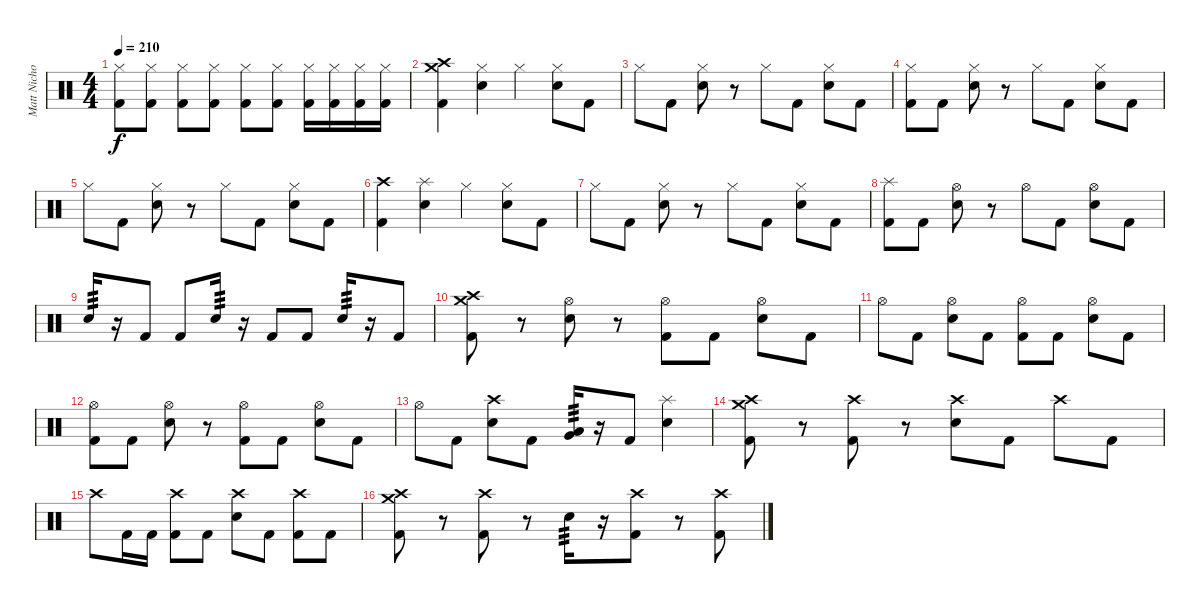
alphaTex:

\track ("Matt Nichols" "Matt Nicho") {instrument percussion}
\staff {score}
\articulation defaults
\ts (4 4)
\tempo 210
\clef neutral
\ks c
("Hi-Hat (closed)" "Kick (hit) 2").8{dy f} ("Hi-Hat (closed)" "Kick (hit) 2").8 ("Hi-Hat (closed)" "Kick (hit) 2").8 ("Hi-Hat (closed)" "Kick (hit) 2").8 ("Hi-Hat (closed)" "Kick (hit) 2").8 ("Hi-Hat (closed)" "Kick (hit) 2").8 ("Hi-Hat (closed)" "Kick (hit) 2").16 ("Hi-Hat (closed)" "Kick (hit) 2").16 ("Hi-Hat (closed)" "Kick (hit) 2").16 ("Hi-Hat (closed)" "Kick (hit) 2").16 |
("Crash high (hit)" "Crash medium (hit)" "Kick (hit) 2").4 ("Hi-Hat (closed)" "Snare (hit) 2").4 "Hi-Hat (closed)".4 ("Hi-Hat (closed)" "Snare (hit) 2").8 "Kick (hit) 2".8 |
"Hi-Hat (closed)".8 "Kick (hit) 2".8 ("Hi-Hat (closed)" "Snare (hit) 2").8 r.8 "Hi-Hat (closed)".8 "Kick (hit) 2".8 ("Hi-Hat (closed)" "Snare (hit) 2").8 "Kick (hit) 2".8 |
("Hi-Hat (closed)" "Kick (hit) 2").8 "Kick (hit) 2".8 ("Hi-Hat (closed)" "Snare (hit) 2").8 r.8 "Hi-Hat (closed)".8 "Kick (hit) 2".8 ("Hi-Hat (closed)" "Snare (hit) 2").8 "Kick (hit) 2".8 |
"Hi-Hat (closed)".8 "Kick (hit) 2".8 ("Hi-Hat (closed)" "Snare (hit) 2").8 r.8 "Hi-Hat (closed)".8 "Kick (hit) 2".8 ("Hi-Hat (closed)" "Snare (hit) 2").8 "Kick (hit) 2".8 |
("Crash high (hit)" "Kick (hit) 2").4 ("Splash (hit)" "Snare (hit) 2").4 "Hi-Hat (closed)".4 ("Hi-Hat (closed)" "Snare (hit) 2").8 "Kick (hit) 2".8 |
"Hi-Hat (closed)".8 "Kick (hit) 2".8 ("Hi-Hat (closed)" "Snare (hit) 2").8 r.8 "Hi-Hat (closed)".8 "Kick (hit) 2".8 ("Hi-Hat (closed)" "Snare (hit) 2").8 "Kick (hit) 2".8 |
("Splash (hit)" "Kick (hit) 2").8 "Kick (hit) 2".8 ("Hi-Hat (open)" "Snare (hit) 2").8 r.8 "Hi-Hat (open)".8 "Kick (hit) 2".8 ("Hi-Hat (open)" "Snare (hit) 2").8 "Kick (hit) 2".8 |
"Snare (hit) 2".16{tp 3} r.16 "Kick (hit) 2".8 "Kick (hit) 2".8 "Snare (hit) 2".16{tp 3} r.16 "Kick (hit) 2".8 "Kick (hit) 2".8 "Snare (hit) 2".16{tp 3} r.16 "Kick (hit) 2".8 |
("Crash high (hit)" "Crash medium (hit)" "Kick (hit) 2").8 r.8 ("Hi-Hat (open)" "Snare (hit) 2").8 r.8 ("Hi-Hat (open)" "Kick (hit) 2").8 "Kick (hit) 2".8 ("Hi-Hat (open)" "Snare (hit) 2").8 "Kick (hit) 2".8 |
"Hi-Hat (open)".8 "Kick (hit) 2".8 ("Hi-Hat (open)" "Snare (hit) 2").8 "Kick (hit) 2".8 ("Hi-Hat (open)" "Kick (hit) 2").8 "Kick (hit) 2".8 ("Hi-Hat (open)" "Snare (hit) 2").8 "Kick (hit) 2".8 |
("Hi-Hat (open)" "Kick (hit) 2").8 "Kick (hit) 2".8 ("Hi-Hat (open)" "Snare (hit) 2").8 r.8 ("Hi-Hat (open)" "Kick (hit) 2").8 "Kick (hit) 2".8 ("Hi-Hat (open)" "Snare (hit) 2").8 "Kick (hit) 2".8 |
"Hi-Hat (open)".8 "Kick (hit) 2".8 ("Crash high (hit)" "Snare (hit) 2").8 "Kick (hit) 2".8 ("Low Tom (hit)" "Very Low Tom (hit)").16{tp 3} r.16 "Kick (hit) 2".8 ("Splash (hit)" "Snare (hit) 2").4 |
("Crash high (hit)" "Crash medium (hit)" "Kick (hit) 2").8 r.8 ("Crash high (hit)" "Kick (hit) 2").8 r.8 ("Crash high (hit)" "Snare (hit) 2").8 "Kick (hit) 2".8 "Crash high (hit)".8 "Kick (hit) 2".8 |
"Crash high (hit)".8 "Kick (hit) 2".16 "Kick (hit) 2".16 ("Crash high (hit)" "Kick (hit) 2").8 "Kick (hit) 2".8 ("Crash high (hit)" "Snare (hit) 2").8 "Kick (hit) 2".8 ("Crash high (hit)" "Kick (hit) 2").8 "Kick (hit) 2".8 |
("Crash high (hit)" "Crash medium (hit)" "Kick (hit) 2").8 r.8 ("Crash high (hit)" "Kick (hit) 2").8 r.8 "Snare (hit) 2".16{tp 3} r.16 ("Crash high (hit)" "Kick (hit) 2").8 r.8 ("Crash high (hit)" "Kick (hit) 2").8
